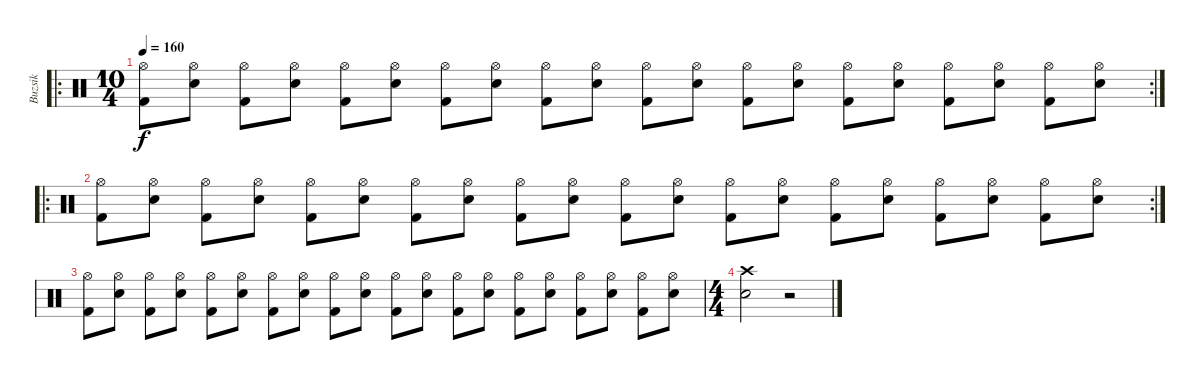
\track ("Buzsik" "Buzsik") {instrument percussion}
\staff {score}
\articulation defaults
\ro
\rc 2
\ts (10 4)
\tempo 160
\clef neutral
\ks c
("Hi-Hat (open)" "Kick (hit) 2").8{dy f} ("Hi-Hat (open)" "Electric Snare (hit)").8 ("Hi-Hat (open)" "Kick (hit) 2").8 ("Hi-Hat (open)" "Electric Snare (hit)").8 ("Hi-Hat (open)" "Kick (hit) 2").8 ("Hi-Hat (open)" "Electric Snare (hit)").8 ("Hi-Hat (open)" "Kick (hit) 2").8 ("Hi-Hat (open)" "Electric Snare (hit)").8 ("Hi-Hat (open)" "Kick (hit) 2").8 ("Hi-Hat (open)" "Electric Snare (hit)").8 ("Hi-Hat (open)" "Kick (hit) 2").8 ("Hi-Hat (open)" "Electric Snare (hit)").8 ("Hi-Hat (open)" "Kick (hit) 2").8 ("Hi-Hat (open)" "Electric Snare (hit)").8 ("Hi-Hat (open)" "Kick (hit) 2").8 ("Hi-Hat (open)" "Electric Snare (hit)").8 ("Hi-Hat (open)" "Kick (hit) 2").8 ("Hi-Hat (open)" "Electric Snare (hit)").8 ("Hi-Hat (open)" "Kick (hit) 2").8 ("Hi-Hat (open)" "Electric Snare (hit)").8 |
\ro
\rc 2
("Hi-Hat (open)" "Kick (hit) 2").8 ("Hi-Hat (open)" "Electric Snare (hit)").8 ("Hi-Hat (open)" "Kick (hit) 2").8 ("Hi-Hat (open)" "Electric Snare (hit)").8 ("Hi-Hat (open)" "Kick (hit) 2").8 ("Hi-Hat (open)" "Electric Snare (hit)").8 ("Hi-Hat (open)" "Kick (hit) 2").8 ("Hi-Hat (open)" "Electric Snare (hit)").8 ("Hi-Hat (open)" "Kick (hit) 2").8 ("Hi-Hat (open)" "Electric Snare (hit)").8 ("Hi-Hat (open)" "Kick (hit) 2").8 ("Hi-Hat (open)" "Electric Snare (hit)").8 ("Hi-Hat (open)" "Kick (hit) 2").8 ("Hi-Hat (open)" "Electric Snare (hit)").8 ("Hi-Hat (open)" "Kick (hit) 2").8 ("Hi-Hat (open)" "Electric Snare (hit)").8 ("Hi-Hat (open)" "Kick (hit) 2").8 ("Hi-Hat (open)" "Electric Snare (hit)").8 ("Hi-Hat (open)" "Kick (hit) 2").8 ("Hi-Hat (open)" "Electric Snare (hit)").8 |
("Hi-Hat (open)" "Kick (hit) 2").8 ("Hi-Hat (open)" "Electric Snare (hit)").8 ("Hi-Hat (open)" "Kick (hit) 2").8 ("Hi-Hat (open)" "Electric Snare (hit)").8 ("Hi-Hat (open)" "Kick (hit) 2").8 ("Hi-Hat (open)" "Electric Snare (hit)").8 ("Hi-Hat (open)" "Kick (hit) 2").8 ("Hi-Hat (open)" "Electric Snare (hit)").8 ("Hi-Hat (open)" "Kick (hit) 2").8 ("Hi-Hat (open)" "Electric Snare (hit)").8 ("Hi-Hat (open)" "Kick (hit) 2").8 ("Hi-Hat (open)" "Electric Snare (hit)").8 ("Hi-Hat (open)" "Kick (hit) 2").8 ("Hi-Hat (open)" "Electric Snare (hit)").8 ("Hi-Hat (open)" "Kick (hit) 2").8 ("Hi-Hat (open)" "Electric Snare (hit)").8 ("Hi-Hat (open)" "Kick (hit) 2").8 ("Hi-Hat (open)" "Electric Snare (hit)").8 ("Hi-Hat (open)" "Kick (hit) 2").8 ("Hi-Hat (open)" "Electric Snare (hit)").8 |
\ts (4 4)
("Crash high (hit)" "Snare (hit) 2").2 r.2
